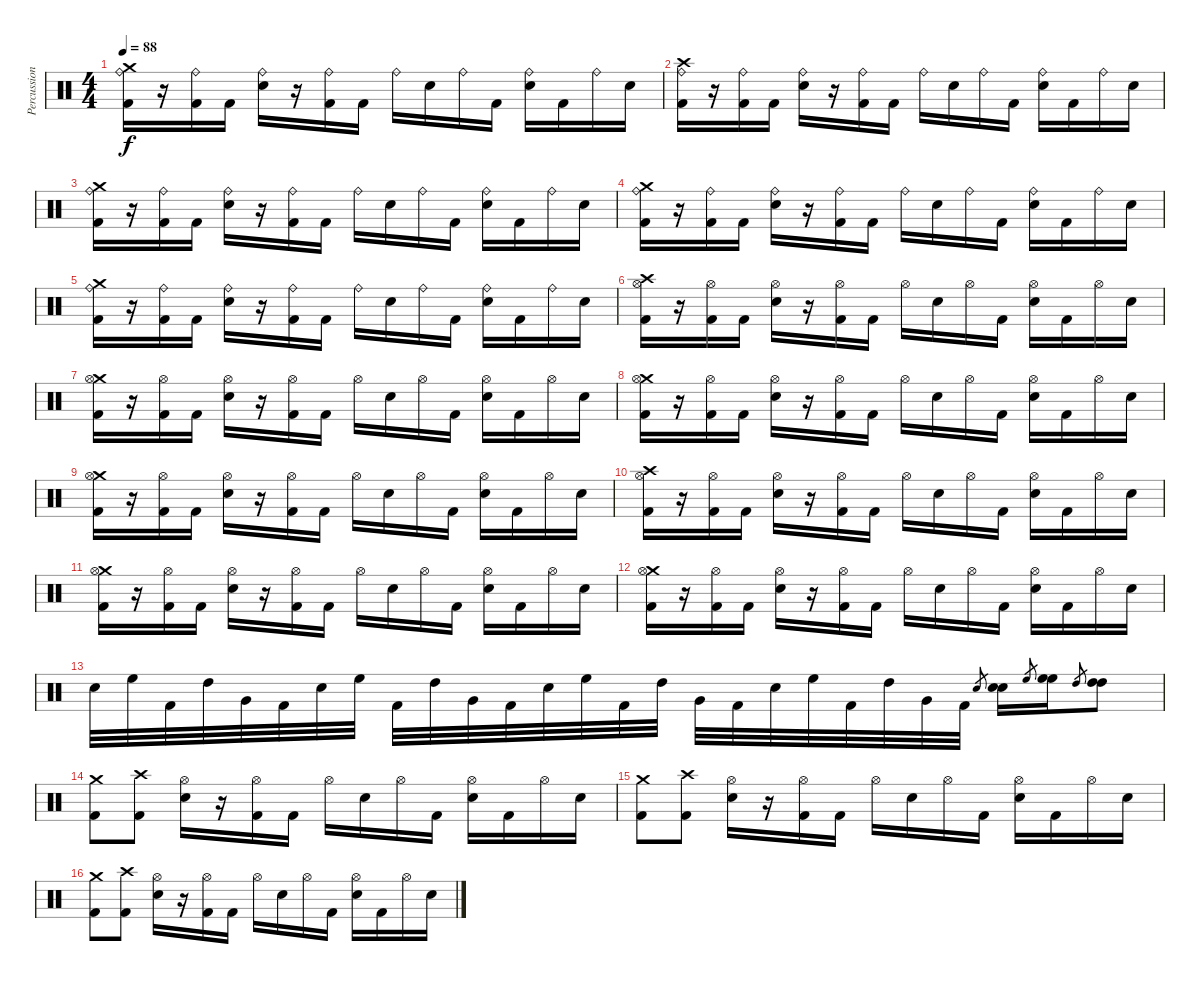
\track ("Percussion" "Percussion") {instrument percussion}
\staff {score}
\articulation defaults
\ts (4 4)
\tempo 88
\clef neutral
\ks c
("Crash medium (hit)" "Ride (bell)" "Kick (hit) 2").16{dy f} r.16 ("Ride (bell)" "Kick (hit) 2").16 "Kick (hit) 2".16 ("Ride (bell)" "Electric Snare (hit)").16 r.16 ("Ride (bell)" "Kick (hit) 2").16 "Kick (hit) 2".16 "Ride (bell)".16 "Electric Snare (hit)".16 "Ride (bell)".16 "Kick (hit) 2".16 ("Ride (bell)" "Electric Snare (hit)").16 "Kick (hit) 2".16 "Ride (bell)".16 "Electric Snare (hit)".16 |
("Crash high (hit)" "Ride (bell)" "Kick (hit) 2").16 r.16 ("Ride (bell)" "Kick (hit) 2").16 "Kick (hit) 2".16 ("Ride (bell)" "Electric Snare (hit)").16 r.16 ("Ride (bell)" "Kick (hit) 2").16 "Kick (hit) 2".16 "Ride (bell)".16 "Electric Snare (hit)".16 "Ride (bell)".16 "Kick (hit) 2".16 ("Ride (bell)" "Electric Snare (hit)").16 "Kick (hit) 2".16 "Ride (bell)".16 "Electric Snare (hit)".16 |
("Crash medium (hit)" "Ride (bell)" "Kick (hit) 2").16 r.16 ("Ride (bell)" "Kick (hit) 2").16 "Kick (hit) 2".16 ("Ride (bell)" "Electric Snare (hit)").16 r.16 ("Ride (bell)" "Kick (hit) 2").16 "Kick (hit) 2".16 "Ride (bell)".16 "Electric Snare (hit)".16 "Ride (bell)".16 "Kick (hit) 2".16 ("Ride (bell)" "Electric Snare (hit)").16 "Kick (hit) 2".16 "Ride (bell)".16 "Electric Snare (hit)".16 |
("Crash medium (hit)" "Ride (bell)" "Kick (hit) 2").16 r.16 ("Ride (bell)" "Kick (hit) 2").16 "Kick (hit) 2".16 ("Ride (bell)" "Electric Snare (hit)").16 r.16 ("Ride (bell)" "Kick (hit) 2").16 "Kick (hit) 2".16 "Ride (bell)".16 "Electric Snare (hit)".16 "Ride (bell)".16 "Kick (hit) 2".16 ("Ride (bell)" "Electric Snare (hit)").16 "Kick (hit) 2".16 "Ride (bell)".16 "Electric Snare (hit)".16 |
("Crash medium (hit)" "Ride (bell)" "Kick (hit) 2").16 r.16 ("Ride (bell)" "Kick (hit) 2").16 "Kick (hit) 2".16 ("Ride (bell)" "Electric Snare (hit)").16 r.16 ("Ride (bell)" "Kick (hit) 2").16 "Kick (hit) 2".16 "Ride (bell)".16 "Electric Snare (hit)".16 "Ride (bell)".16 "Kick (hit) 2".16 ("Ride (bell)" "Electric Snare (hit)").16 "Kick (hit) 2".16 "Ride (bell)".16 "Electric Snare (hit)".16 |
("Crash high (hit)" "Hi-Hat (open)" "Kick (hit) 2").16 r.16 ("Hi-Hat (open)" "Kick (hit) 2").16 "Kick (hit) 2".16 ("Hi-Hat (open)" "Electric Snare (hit)").16 r.16 ("Hi-Hat (open)" "Kick (hit) 2").16 "Kick (hit) 2".16 "Hi-Hat (open)".16 "Electric Snare (hit)".16 "Hi-Hat (open)".16 "Kick (hit) 2".16 ("Hi-Hat (open)" "Electric Snare (hit)").16 "Kick (hit) 2".16 "Hi-Hat (open)".16 "Electric Snare (hit)".16 |
("Crash medium (hit)" "Hi-Hat (open)" "Kick (hit) 2").16 r.16 ("Hi-Hat (open)" "Kick (hit) 2").16 "Kick (hit) 2".16 ("Hi-Hat (open)" "Electric Snare (hit)").16 r.16 ("Hi-Hat (open)" "Kick (hit) 2").16 "Kick (hit) 2".16 "Hi-Hat (open)".16 "Electric Snare (hit)".16 "Hi-Hat (open)".16 "Kick (hit) 2".16 ("Hi-Hat (open)" "Electric Snare (hit)").16 "Kick (hit) 2".16 "Hi-Hat (open)".16 "Electric Snare (hit)".16 |
("Crash medium (hit)" "Hi-Hat (open)" "Kick (hit) 2").16 r.16 ("Hi-Hat (open)" "Kick (hit) 2").16 "Kick (hit) 2".16 ("Hi-Hat (open)" "Electric Snare (hit)").16 r.16 ("Hi-Hat (open)" "Kick (hit) 2").16 "Kick (hit) 2".16 "Hi-Hat (open)".16 "Electric Snare (hit)".16 "Hi-Hat (open)".16 "Kick (hit) 2".16 ("Hi-Hat (open)" "Electric Snare (hit)").16 "Kick (hit) 2".16 "Hi-Hat (open)".16 "Electric Snare (hit)".16 |
("Crash medium (hit)" "Hi-Hat (open)" "Kick (hit) 2").16 r.16 ("Hi-Hat (open)" "Kick (hit) 2").16 "Kick (hit) 2".16 ("Hi-Hat (open)" "Electric Snare (hit)").16 r.16 ("Hi-Hat (open)" "Kick (hit) 2").16 "Kick (hit) 2".16 "Hi-Hat (open)".16 "Electric Snare (hit)".16 "Hi-Hat (open)".16 "Kick (hit) 2".16 ("Hi-Hat (open)" "Electric Snare (hit)").16 "Kick (hit) 2".16 "Hi-Hat (open)".16 "Electric Snare (hit)".16 |
("Crash high (hit)" "Hi-Hat (open)" "Kick (hit) 2").16 r.16 ("Hi-Hat (open)" "Kick (hit) 2").16 "Kick (hit) 2".16 ("Hi-Hat (open)" "Electric Snare (hit)").16 r.16 ("Hi-Hat (open)" "Kick (hit) 2").16 "Kick (hit) 2".16 "Hi-Hat (open)".16 "Electric Snare (hit)".16 "Hi-Hat (open)".16 "Kick (hit) 2".16 ("Hi-Hat (open)" "Electric Snare (hit)").16 "Kick (hit) 2".16 "Hi-Hat (open)".16 "Electric Snare (hit)".16 |
("Crash medium (hit)" "Hi-Hat (open)" "Kick (hit) 2").16 r.16 ("Hi-Hat (open)" "Kick (hit) 2").16 "Kick (hit) 2".16 ("Hi-Hat (open)" "Electric Snare (hit)").16 r.16 ("Hi-Hat (open)" "Kick (hit) 2").16 "Kick (hit) 2".16 "Hi-Hat (open)".16 "Electric Snare (hit)".16 "Hi-Hat (open)".16 "Kick (hit) 2".16 ("Hi-Hat (open)" "Electric Snare (hit)").16 "Kick (hit) 2".16 "Hi-Hat (open)".16 "Electric Snare (hit)".16 |
("Crash medium (hit)" "Hi-Hat (open)" "Kick (hit) 2").16 r.16 ("Hi-Hat (open)" "Kick (hit) 2").16 "Kick (hit) 2".16 ("Hi-Hat (open)" "Electric Snare (hit)").16 r.16 ("Hi-Hat (open)" "Kick (hit) 2").16 "Kick (hit) 2".16 "Hi-Hat (open)".16 "Electric Snare (hit)".16 "Hi-Hat (open)".16 "Kick (hit) 2".16 ("Hi-Hat (open)" "Electric Snare (hit)").16 "Kick (hit) 2".16 "Hi-Hat (open)".16 "Electric Snare (hit)".16 |
"Electric Snare (hit)".32 "High Floor Tom (hit)".32 "Kick (hit) 2".32 "High Tom (hit)".32 "Very Low Tom (hit)".32 "Kick (hit) 2".32 "Electric Snare (hit)".32 "High Floor Tom (hit)".32 "Kick (hit) 2".32 "High Tom (hit)".32 "Very Low Tom (hit)".32 "Kick (hit) 2".32 "Electric Snare (hit)".32 "High Floor Tom (hit)".32 "Kick (hit) 2".32 "High Tom (hit)".32 "Very Low Tom (hit)".32 "Kick (hit) 2".32 "Electric Snare (hit)".32 "High Floor Tom (hit)".32 "Kick (hit) 2".32 "High Tom (hit)".32 "Very Low Tom (hit)".32 "Kick (hit) 2".32 "Electric Snare (hit)".8{gr} ("Electric Snare (hit)" "Electric Snare (hit)").16 "High Floor Tom (hit)".8{gr} ("High Floor Tom (hit)" "High Floor Tom (hit)").16 "High Tom (hit)".8{gr} ("High Tom (hit)" "High Tom (hit)").8 |
("Crash medium (hit)" "Kick (hit) 2").8 ("Crash high (hit)" "Kick (hit) 2").8 ("Hi-Hat (open)" "Electric Snare (hit)").16 r.16 ("Hi-Hat (open)" "Kick (hit) 2").16 "Kick (hit) 2".16 "Hi-Hat (open)".16 "Electric Snare (hit)".16 "Hi-Hat (open)".16 "Kick (hit) 2".16 ("Hi-Hat (open)" "Electric Snare (hit)").16 "Kick (hit) 2".16 "Hi-Hat (open)".16 "Electric Snare (hit)".16 |
("Crash medium (hit)" "Kick (hit) 2").8 ("Crash high (hit)" "Kick (hit) 2").8 ("Hi-Hat (open)" "Electric Snare (hit)").16 r.16 ("Hi-Hat (open)" "Kick (hit) 2").16 "Kick (hit) 2".16 "Hi-Hat (open)".16 "Electric Snare (hit)".16 "Hi-Hat (open)".16 "Kick (hit) 2".16 ("Hi-Hat (open)" "Electric Snare (hit)").16 "Kick (hit) 2".16 "Hi-Hat (open)".16 "Electric Snare (hit)".16 |
("Crash medium (hit)" "Kick (hit) 2").8 ("Crash high (hit)" "Kick (hit) 2").8 ("Hi-Hat (open)" "Electric Snare (hit)").16 r.16 ("Hi-Hat (open)" "Kick (hit) 2").16 "Kick (hit) 2".16 "Hi-Hat (open)".16 "Electric Snare (hit)".16 "Hi-Hat (open)".16 "Kick (hit) 2".16 ("Hi-Hat (open)" "Electric Snare (hit)").16 "Kick (hit) 2".16 "Hi-Hat (open)".16 "Electric Snare (hit)".16
